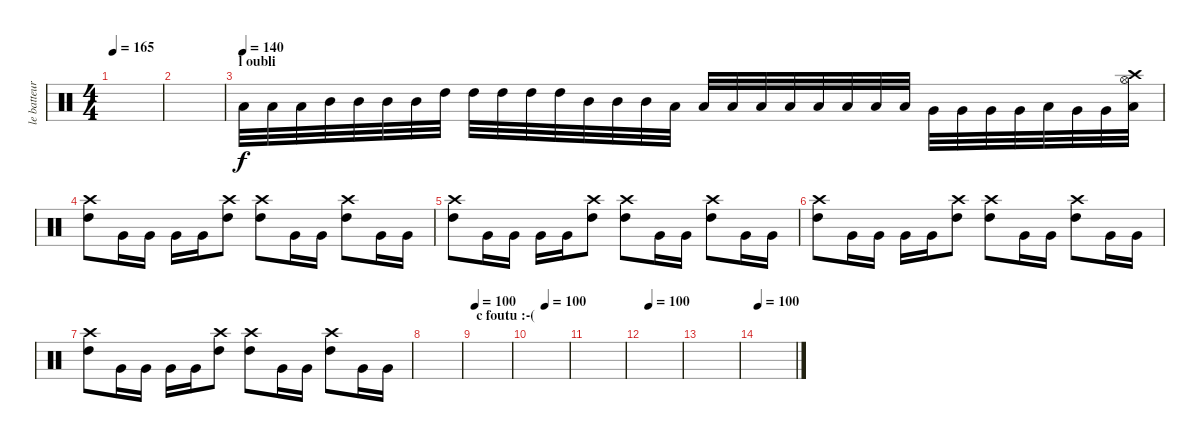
\track ("le batteur" "le batteur") {instrument percussion}
\staff {score}
\articulation defaults
\ts (4 4)
\tempo 165
\clef neutral
\ks c
|
|
\section ("" "l oubli")
\tempo (140)
"Low Tom (hit)".32 "Low Tom (hit)".32 "Low Tom (hit)".32 "Mid Tom (hit)".32 "Mid Tom (hit)".32 "Mid Tom (hit)".32 "Mid Tom (hit)".32 "High Tom (hit)".32 "High Tom (hit)".32 "High Tom (hit)".32 "High Tom (hit)".32 "High Tom (hit)".32 "Mid Tom (hit)".32 "Mid Tom (hit)".32 "Mid Tom (hit)".32 "Low Tom (hit)".32 "Low Tom (hit)".32 "Low Tom (hit)".32 "Low Tom (hit)".32 "Low Tom (hit)".32 "Low Tom (hit)".32 "Low Tom (hit)".32 "Low Tom (hit)".32 "Low Tom (hit)".32 "Very Low Tom (hit)".32 "Very Low Tom (hit)".32 "Very Low Tom (hit)".32 "Very Low Tom (hit)".32 "Low Tom (hit)".32 "Very Low Tom (hit)".32 "Very Low Tom (hit)".32 ("Crash high (hit)" "Hi-Hat (open)" "Low Tom (hit)").32 |
("Crash high (hit)" "High Tom (hit)").8 "Very Low Tom (hit)".16 "Very Low Tom (hit)".16 "Very Low Tom (hit)".16 "Very Low Tom (hit)".16 ("Crash high (hit)" "High Tom (hit)").8 ("Crash high (hit)" "High Tom (hit)").8 "Very Low Tom (hit)".16 "Very Low Tom (hit)".16 ("Crash high (hit)" "High Tom (hit)").8 "Very Low Tom (hit)".16 "Very Low Tom (hit)".16 |
("Crash high (hit)" "High Tom (hit)").8 "Very Low Tom (hit)".16 "Very Low Tom (hit)".16 "Very Low Tom (hit)".16 "Very Low Tom (hit)".16 ("Crash high (hit)" "High Tom (hit)").8 ("Crash high (hit)" "High Tom (hit)").8 "Very Low Tom (hit)".16 "Very Low Tom (hit)".16 ("Crash high (hit)" "High Tom (hit)").8 "Very Low Tom (hit)".16 "Very Low Tom (hit)".16 |
("Crash high (hit)" "High Tom (hit)").8 "Very Low Tom (hit)".16 "Very Low Tom (hit)".16 "Very Low Tom (hit)".16 "Very Low Tom (hit)".16 ("Crash high (hit)" "High Tom (hit)").8 ("Crash high (hit)" "High Tom (hit)").8 "Very Low Tom (hit)".16 "Very Low Tom (hit)".16 ("Crash high (hit)" "High Tom (hit)").8 "Very Low Tom (hit)".16 "Very Low Tom (hit)".16 |
("Crash high (hit)" "High Tom (hit)").8 "Very Low Tom (hit)".16 "Very Low Tom (hit)".16 "Very Low Tom (hit)".16 "Very Low Tom (hit)".16 ("Crash high (hit)" "High Tom (hit)").8 ("Crash high (hit)" "High Tom (hit)").8 "Very Low Tom (hit)".16 "Very Low Tom (hit)".16 ("Crash high (hit)" "High Tom (hit)").8 "Very Low Tom (hit)".16 "Very Low Tom (hit)".16 |
|
\section ("" "c foutu :-(")
\tempo 100
|
\tempo (100 0.375)
|
|
\tempo (100 0.125)
|
|
\tempo 100
